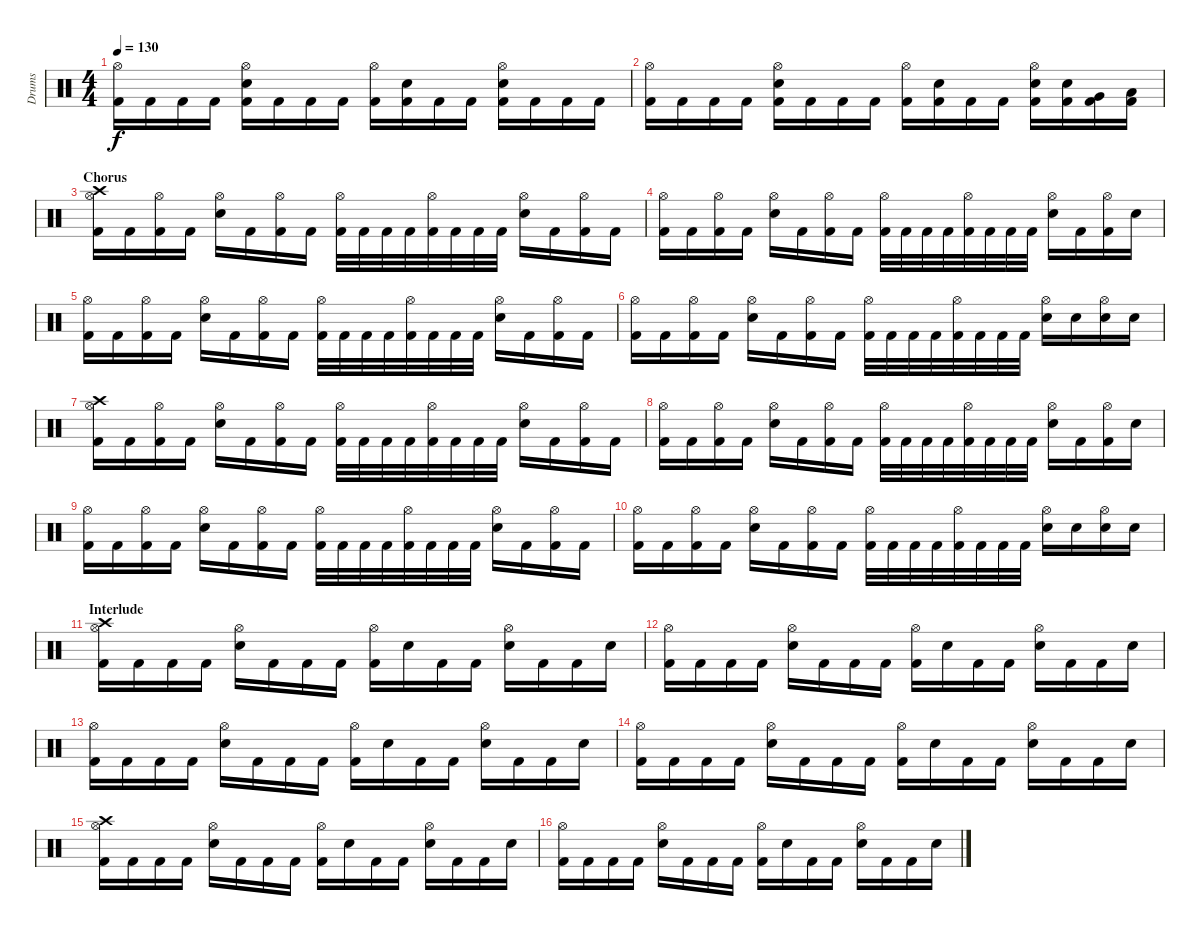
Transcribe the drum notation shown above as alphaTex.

\track ("Drums" "Drums") {instrument percussion}
\staff {score}
\articulation defaults
\ts (4 4)
\tempo 130
\clef neutral
\ks c
("Hi-Hat (open)" "Kick (hit) 2").16{dy f} "Kick (hit) 2".16 "Kick (hit) 2".16 "Kick (hit) 2".16 ("Hi-Hat (open)" "Electric Snare (hit)" "Kick (hit) 2").16 "Kick (hit) 2".16 "Kick (hit) 2".16 "Kick (hit) 2".16 ("Hi-Hat (open)" "Kick (hit) 2").16 ("Electric Snare (hit)" "Kick (hit) 2").16 "Kick (hit) 2".16 "Kick (hit) 2".16 ("Hi-Hat (open)" "Electric Snare (hit)" "Kick (hit) 2").16 "Kick (hit) 2".16 "Kick (hit) 2".16 "Kick (hit) 2".16 |
("Hi-Hat (open)" "Kick (hit) 2").16 "Kick (hit) 2".16 "Kick (hit) 2".16 "Kick (hit) 2".16 ("Hi-Hat (open)" "Electric Snare (hit)" "Kick (hit) 2").16 "Kick (hit) 2".16 "Kick (hit) 2".16 "Kick (hit) 2".16 ("Hi-Hat (open)" "Kick (hit) 2").16 ("Electric Snare (hit)" "Kick (hit) 2").16 "Kick (hit) 2".16 "Kick (hit) 2".16 ("Hi-Hat (open)" "Electric Snare (hit)" "Kick (hit) 2").16 ("Electric Snare (hit)" "Kick (hit) 2").16 ("Very Low Tom (hit)" "Kick (hit) 2").16 ("Low Floor Tom (hit)" "Kick (hit) 2").16 |
\section ("" "Chorus")
("Crash high (hit)" "Hi-Hat (open)" "Kick (hit) 2").16 "Kick (hit) 2".16 ("Hi-Hat (open)" "Kick (hit) 2").16 "Kick (hit) 2".16 ("Hi-Hat (open)" "Electric Snare (hit)").16 "Kick (hit) 2".16 ("Hi-Hat (open)" "Kick (hit) 2").16 "Kick (hit) 2".16 ("Hi-Hat (open)" "Kick (hit) 2").32 "Kick (hit) 2".32 "Kick (hit) 2".32 "Kick (hit) 2".32 ("Hi-Hat (open)" "Kick (hit) 2").32 "Kick (hit) 2".32 "Kick (hit) 2".32 "Kick (hit) 2".32 ("Hi-Hat (open)" "Electric Snare (hit)").16 "Kick (hit) 2".16 ("Hi-Hat (open)" "Kick (hit) 2").16 "Kick (hit) 2".16 |
("Hi-Hat (open)" "Kick (hit) 2").16 "Kick (hit) 2".16 ("Hi-Hat (open)" "Kick (hit) 2").16 "Kick (hit) 2".16 ("Hi-Hat (open)" "Electric Snare (hit)").16 "Kick (hit) 2".16 ("Hi-Hat (open)" "Kick (hit) 2").16 "Kick (hit) 2".16 ("Hi-Hat (open)" "Kick (hit) 2").32 "Kick (hit) 2".32 "Kick (hit) 2".32 "Kick (hit) 2".32 ("Hi-Hat (open)" "Kick (hit) 2").32 "Kick (hit) 2".32 "Kick (hit) 2".32 "Kick (hit) 2".32 ("Hi-Hat (open)" "Electric Snare (hit)").16 "Kick (hit) 2".16 ("Hi-Hat (open)" "Kick (hit) 2").16 "Electric Snare (hit)".16 |
("Hi-Hat (open)" "Kick (hit) 2").16 "Kick (hit) 2".16 ("Hi-Hat (open)" "Kick (hit) 2").16 "Kick (hit) 2".16 ("Hi-Hat (open)" "Electric Snare (hit)").16 "Kick (hit) 2".16 ("Hi-Hat (open)" "Kick (hit) 2").16 "Kick (hit) 2".16 ("Hi-Hat (open)" "Kick (hit) 2").32 "Kick (hit) 2".32 "Kick (hit) 2".32 "Kick (hit) 2".32 ("Hi-Hat (open)" "Kick (hit) 2").32 "Kick (hit) 2".32 "Kick (hit) 2".32 "Kick (hit) 2".32 ("Hi-Hat (open)" "Electric Snare (hit)").16 "Kick (hit) 2".16 ("Hi-Hat (open)" "Kick (hit) 2").16 "Kick (hit) 2".16 |
("Hi-Hat (open)" "Kick (hit) 2").16 "Kick (hit) 2".16 ("Hi-Hat (open)" "Kick (hit) 2").16 "Kick (hit) 2".16 ("Hi-Hat (open)" "Electric Snare (hit)").16 "Kick (hit) 2".16 ("Hi-Hat (open)" "Kick (hit) 2").16 "Kick (hit) 2".16 ("Hi-Hat (open)" "Kick (hit) 2").32 "Kick (hit) 2".32 "Kick (hit) 2".32 "Kick (hit) 2".32 ("Hi-Hat (open)" "Kick (hit) 2").32 "Kick (hit) 2".32 "Kick (hit) 2".32 "Kick (hit) 2".32 ("Hi-Hat (open)" "Electric Snare (hit)").16 "Electric Snare (hit)".16 ("Hi-Hat (open)" "Electric Snare (hit)").16 "Electric Snare (hit)".16 |
("Crash high (hit)" "Hi-Hat (open)" "Kick (hit) 2").16 "Kick (hit) 2".16 ("Hi-Hat (open)" "Kick (hit) 2").16 "Kick (hit) 2".16 ("Hi-Hat (open)" "Electric Snare (hit)").16 "Kick (hit) 2".16 ("Hi-Hat (open)" "Kick (hit) 2").16 "Kick (hit) 2".16 ("Hi-Hat (open)" "Kick (hit) 2").32 "Kick (hit) 2".32 "Kick (hit) 2".32 "Kick (hit) 2".32 ("Hi-Hat (open)" "Kick (hit) 2").32 "Kick (hit) 2".32 "Kick (hit) 2".32 "Kick (hit) 2".32 ("Hi-Hat (open)" "Electric Snare (hit)").16 "Kick (hit) 2".16 ("Hi-Hat (open)" "Kick (hit) 2").16 "Kick (hit) 2".16 |
("Hi-Hat (open)" "Kick (hit) 2").16 "Kick (hit) 2".16 ("Hi-Hat (open)" "Kick (hit) 2").16 "Kick (hit) 2".16 ("Hi-Hat (open)" "Electric Snare (hit)").16 "Kick (hit) 2".16 ("Hi-Hat (open)" "Kick (hit) 2").16 "Kick (hit) 2".16 ("Hi-Hat (open)" "Kick (hit) 2").32 "Kick (hit) 2".32 "Kick (hit) 2".32 "Kick (hit) 2".32 ("Hi-Hat (open)" "Kick (hit) 2").32 "Kick (hit) 2".32 "Kick (hit) 2".32 "Kick (hit) 2".32 ("Hi-Hat (open)" "Electric Snare (hit)").16 "Kick (hit) 2".16 ("Hi-Hat (open)" "Kick (hit) 2").16 "Electric Snare (hit)".16 |
("Hi-Hat (open)" "Kick (hit) 2").16 "Kick (hit) 2".16 ("Hi-Hat (open)" "Kick (hit) 2").16 "Kick (hit) 2".16 ("Hi-Hat (open)" "Electric Snare (hit)").16 "Kick (hit) 2".16 ("Hi-Hat (open)" "Kick (hit) 2").16 "Kick (hit) 2".16 ("Hi-Hat (open)" "Kick (hit) 2").32 "Kick (hit) 2".32 "Kick (hit) 2".32 "Kick (hit) 2".32 ("Hi-Hat (open)" "Kick (hit) 2").32 "Kick (hit) 2".32 "Kick (hit) 2".32 "Kick (hit) 2".32 ("Hi-Hat (open)" "Electric Snare (hit)").16 "Kick (hit) 2".16 ("Hi-Hat (open)" "Kick (hit) 2").16 "Kick (hit) 2".16 |
("Hi-Hat (open)" "Kick (hit) 2").16 "Kick (hit) 2".16 ("Hi-Hat (open)" "Kick (hit) 2").16 "Kick (hit) 2".16 ("Hi-Hat (open)" "Electric Snare (hit)").16 "Kick (hit) 2".16 ("Hi-Hat (open)" "Kick (hit) 2").16 "Kick (hit) 2".16 ("Hi-Hat (open)" "Kick (hit) 2").32 "Kick (hit) 2".32 "Kick (hit) 2".32 "Kick (hit) 2".32 ("Hi-Hat (open)" "Kick (hit) 2").32 "Kick (hit) 2".32 "Kick (hit) 2".32 "Kick (hit) 2".32 ("Hi-Hat (open)" "Electric Snare (hit)").16 "Electric Snare (hit)".16 ("Hi-Hat (open)" "Electric Snare (hit)").16 "Electric Snare (hit)".16 |
\section ("" "Interlude")
("Crash high (hit)" "Hi-Hat (open)" "Kick (hit) 2").16 "Kick (hit) 2".16 "Kick (hit) 2".16 "Kick (hit) 2".16 ("Hi-Hat (open)" "Electric Snare (hit)").16 "Kick (hit) 2".16 "Kick (hit) 2".16 "Kick (hit) 2".16 ("Hi-Hat (open)" "Kick (hit) 2").16 "Electric Snare (hit)".16 "Kick (hit) 2".16 "Kick (hit) 2".16 ("Hi-Hat (open)" "Electric Snare (hit)").16 "Kick (hit) 2".16 "Kick (hit) 2".16 "Electric Snare (hit)".16 |
("Hi-Hat (open)" "Kick (hit) 2").16 "Kick (hit) 2".16 "Kick (hit) 2".16 "Kick (hit) 2".16 ("Hi-Hat (open)" "Electric Snare (hit)").16 "Kick (hit) 2".16 "Kick (hit) 2".16 "Kick (hit) 2".16 ("Hi-Hat (open)" "Kick (hit) 2").16 "Electric Snare (hit)".16 "Kick (hit) 2".16 "Kick (hit) 2".16 ("Hi-Hat (open)" "Electric Snare (hit)").16 "Kick (hit) 2".16 "Kick (hit) 2".16 "Electric Snare (hit)".16 |
("Hi-Hat (open)" "Kick (hit) 2").16 "Kick (hit) 2".16 "Kick (hit) 2".16 "Kick (hit) 2".16 ("Hi-Hat (open)" "Electric Snare (hit)").16 "Kick (hit) 2".16 "Kick (hit) 2".16 "Kick (hit) 2".16 ("Hi-Hat (open)" "Kick (hit) 2").16 "Electric Snare (hit)".16 "Kick (hit) 2".16 "Kick (hit) 2".16 ("Hi-Hat (open)" "Electric Snare (hit)").16 "Kick (hit) 2".16 "Kick (hit) 2".16 "Electric Snare (hit)".16 |
("Hi-Hat (open)" "Kick (hit) 2").16 "Kick (hit) 2".16 "Kick (hit) 2".16 "Kick (hit) 2".16 ("Hi-Hat (open)" "Electric Snare (hit)").16 "Kick (hit) 2".16 "Kick (hit) 2".16 "Kick (hit) 2".16 ("Hi-Hat (open)" "Kick (hit) 2").16 "Electric Snare (hit)".16 "Kick (hit) 2".16 "Kick (hit) 2".16 ("Hi-Hat (open)" "Electric Snare (hit)").16 "Kick (hit) 2".16 "Kick (hit) 2".16 "Electric Snare (hit)".16 |
("Crash high (hit)" "Hi-Hat (open)" "Kick (hit) 2").16 "Kick (hit) 2".16 "Kick (hit) 2".16 "Kick (hit) 2".16 ("Hi-Hat (open)" "Electric Snare (hit)").16 "Kick (hit) 2".16 "Kick (hit) 2".16 "Kick (hit) 2".16 ("Hi-Hat (open)" "Kick (hit) 2").16 "Electric Snare (hit)".16 "Kick (hit) 2".16 "Kick (hit) 2".16 ("Hi-Hat (open)" "Electric Snare (hit)").16 "Kick (hit) 2".16 "Kick (hit) 2".16 "Electric Snare (hit)".16 |
("Hi-Hat (open)" "Kick (hit) 2").16 "Kick (hit) 2".16 "Kick (hit) 2".16 "Kick (hit) 2".16 ("Hi-Hat (open)" "Electric Snare (hit)").16 "Kick (hit) 2".16 "Kick (hit) 2".16 "Kick (hit) 2".16 ("Hi-Hat (open)" "Kick (hit) 2").16 "Electric Snare (hit)".16 "Kick (hit) 2".16 "Kick (hit) 2".16 ("Hi-Hat (open)" "Electric Snare (hit)").16 "Kick (hit) 2".16 "Kick (hit) 2".16 "Electric Snare (hit)".16
